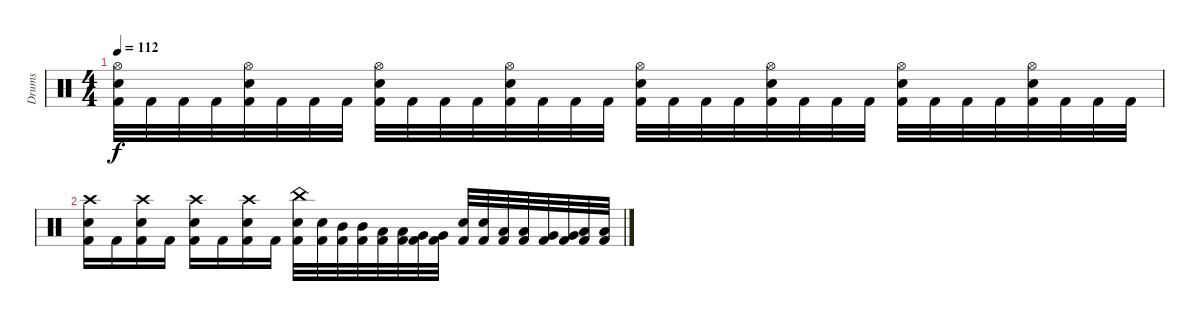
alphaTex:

\track ("Drums" "Drums") {instrument percussion}
\staff {score}
\articulation defaults
\ts (4 4)
\tempo 112
\clef neutral
\ks c
("Hi-Hat (open)" "Electric Snare (hit)" "Kick (hit) 2").32{dy f} "Kick (hit) 2".32 "Kick (hit) 2".32 "Kick (hit) 2".32 ("Hi-Hat (open)" "Electric Snare (hit)" "Kick (hit) 2").32 "Kick (hit) 2".32 "Kick (hit) 2".32 "Kick (hit) 2".32 ("Hi-Hat (open)" "Electric Snare (hit)" "Kick (hit) 2").32 "Kick (hit) 2".32 "Kick (hit) 2".32 "Kick (hit) 2".32 ("Hi-Hat (open)" "Electric Snare (hit)" "Kick (hit) 2").32 "Kick (hit) 2".32 "Kick (hit) 2".32 "Kick (hit) 2".32 ("Hi-Hat (open)" "Electric Snare (hit)" "Kick (hit) 2").32 "Kick (hit) 2".32 "Kick (hit) 2".32 "Kick (hit) 2".32 ("Hi-Hat (open)" "Electric Snare (hit)" "Kick (hit) 2").32 "Kick (hit) 2".32 "Kick (hit) 2".32 "Kick (hit) 2".32 ("Hi-Hat (open)" "Electric Snare (hit)" "Kick (hit) 2").32 "Kick (hit) 2".32 "Kick (hit) 2".32 "Kick (hit) 2".32 ("Hi-Hat (open)" "Electric Snare (hit)" "Kick (hit) 2").32 "Kick (hit) 2".32 "Kick (hit) 2".32 "Kick (hit) 2".32 |
("Crash high (hit)" "Electric Snare (hit)" "Kick (hit) 2").16 "Kick (hit) 2".16 ("Crash high (hit)" "Electric Snare (hit)" "Kick (hit) 2").16 "Kick (hit) 2".16 ("Crash high (hit)" "Electric Snare (hit)" "Kick (hit) 2").16 "Kick (hit) 2".16 ("Crash high (hit)" "Electric Snare (hit)" "Kick (hit) 2").16 "Kick (hit) 2".16 ("China (hit)" "Electric Snare (hit)" "Kick (hit) 2").32 ("Electric Snare (hit)" "Kick (hit) 2").32 ("Mid Tom (hit)" "Kick (hit) 2").32 ("Mid Tom (hit)" "Kick (hit) 2").32 ("Low Tom (hit)" "Kick (hit) 2").32 ("Low Tom (hit)" "Kick (hit) 2").32 ("Very Low Tom (hit)" "Kick (hit) 2").32 ("Very Low Tom (hit)" "Kick (hit) 2").32 ("Electric Snare (hit)" "Kick (hit) 2").32 ("Electric Snare (hit)" "Kick (hit) 2").32 ("Low Tom (hit)" "Kick (hit) 2").32 ("Low Tom (hit)" "Kick (hit) 2").32 ("Very Low Tom (hit)" "Kick (hit) 2").32 ("Very Low Tom (hit)" "Kick (hit) 2").32 ("Low Floor Tom (hit)" "Kick (hit) 2").32 ("Low Floor Tom (hit)" "Kick (hit) 2").32
